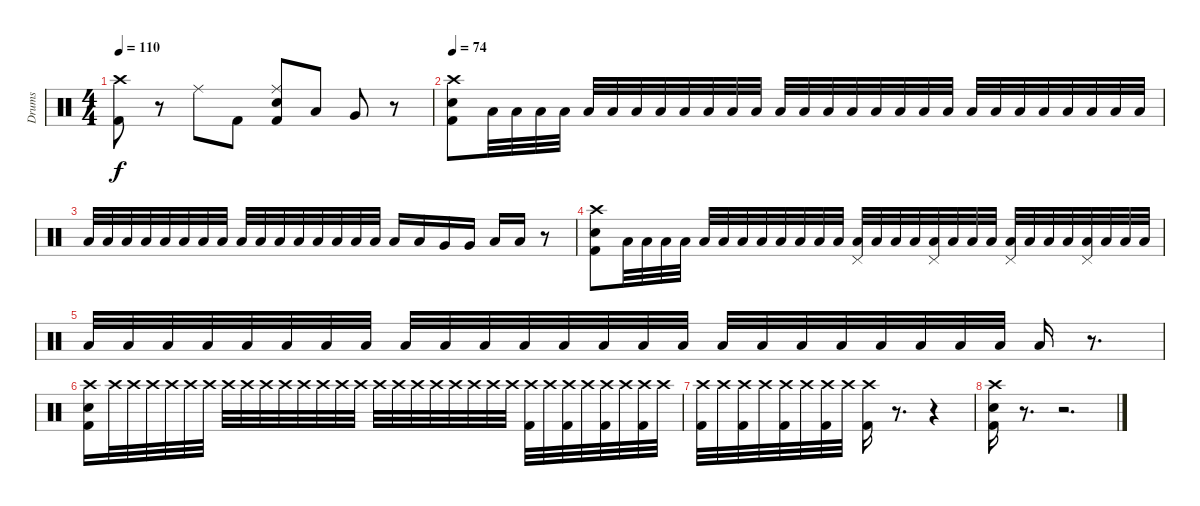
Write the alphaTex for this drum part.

\track ("Drums" "Drums") {instrument percussion}
\staff {score}
\articulation defaults
\ts (4 4)
\tempo 110
\clef neutral
\ks c
("Crash high (hit)" "Kick (hit) 2").8{dy f} r.8 "Ride (middle)".8 "Kick (hit) 2".8 ("Ride (middle)" "Snare (hit) 2" "Kick (hit) 2").8 "Low Tom (hit)".8 "Very Low Tom (hit)".8 r.8 |
\tempo 74
("Crash high (hit)" "Snare (hit) 2" "Kick (hit) 2").8 "Low Tom (hit)".32 "Low Tom (hit)".32 "Low Tom (hit)".32 "Low Tom (hit)".32 "Low Tom (hit)".32 "Low Tom (hit)".32 "Low Tom (hit)".32 "Low Tom (hit)".32 "Low Tom (hit)".32 "Low Tom (hit)".32 "Low Tom (hit)".32 "Low Tom (hit)".32 "Low Tom (hit)".32 "Low Tom (hit)".32 "Low Tom (hit)".32 "Low Tom (hit)".32 "Low Tom (hit)".32 "Low Tom (hit)".32 "Low Tom (hit)".32 "Low Tom (hit)".32 "Low Tom (hit)".32 "Low Tom (hit)".32 "Low Tom (hit)".32 "Low Tom (hit)".32 "Low Tom (hit)".32 "Low Tom (hit)".32 "Low Tom (hit)".32 "Low Tom (hit)".32 |
"Low Tom (hit)".32 "Low Tom (hit)".32 "Low Tom (hit)".32 "Low Tom (hit)".32 "Low Tom (hit)".32 "Low Tom (hit)".32 "Low Tom (hit)".32 "Low Tom (hit)".32 "Low Tom (hit)".32 "Low Tom (hit)".32 "Low Tom (hit)".32 "Low Tom (hit)".32 "Low Tom (hit)".32 "Low Tom (hit)".32 "Low Tom (hit)".32 "Low Tom (hit)".32 "Low Tom (hit)".16 "Low Tom (hit)".16 "Very Low Tom (hit)".16 "Very Low Tom (hit)".16 "Low Floor Tom (hit)".16 "Low Floor Tom (hit)".16 r.8 |
("Crash high (hit)" "Snare (hit) 2" "Kick (hit) 2").8 "Low Tom (hit)".32 "Low Tom (hit)".32 "Low Tom (hit)".32 "Low Tom (hit)".32 "Low Tom (hit)".32 "Low Tom (hit)".32 "Low Tom (hit)".32 "Low Tom (hit)".32 "Low Tom (hit)".32 "Low Tom (hit)".32 "Low Tom (hit)".32 "Low Tom (hit)".32 ("Pedal Hi-Hat (hit)" "Low Tom (hit)").32 "Low Tom (hit)".32 "Low Tom (hit)".32 "Low Tom (hit)".32 ("Pedal Hi-Hat (hit)" "Low Tom (hit)").32 "Low Tom (hit)".32 "Low Tom (hit)".32 "Low Tom (hit)".32 ("Pedal Hi-Hat (hit)" "Low Tom (hit)").32 "Low Tom (hit)".32 "Low Tom (hit)".32 "Low Tom (hit)".32 ("Pedal Hi-Hat (hit)" "Low Tom (hit)").32 "Low Tom (hit)".32 "Low Tom (hit)".32 "Low Tom (hit)".32 |
"Low Tom (hit)".32 "Low Tom (hit)".32 "Low Tom (hit)".32 "Low Tom (hit)".32 "Low Tom (hit)".32 "Low Tom (hit)".32 "Low Tom (hit)".32 "Low Tom (hit)".32 "Low Tom (hit)".32 "Low Tom (hit)".32 "Low Tom (hit)".32 "Low Tom (hit)".32 "Low Tom (hit)".32 "Low Tom (hit)".32 "Low Tom (hit)".32 "Low Tom (hit)".32 "Low Tom (hit)".32 "Low Tom (hit)".32 "Low Tom (hit)".32 "Low Tom (hit)".32 "Low Tom (hit)".32 "Low Tom (hit)".32 "Low Tom (hit)".32 "Low Tom (hit)".32 "Low Tom (hit)".16 r.8{d} |
("Crash high (hit)" "Snare (hit) 2" "Kick (hit) 2").16 "Crash high (hit)".32 "Crash high (hit)".32 "Crash high (hit)".32 "Crash high (hit)".32 "Crash high (hit)".32 "Crash high (hit)".32 "Crash high (hit)".32 "Crash high (hit)".32 "Crash high (hit)".32 "Crash high (hit)".32 "Crash high (hit)".32 "Crash high (hit)".32 "Crash high (hit)".32 "Crash high (hit)".32 "Crash high (hit)".32 "Crash high (hit)".32 "Crash high (hit)".32 "Crash high (hit)".32 "Crash high (hit)".32 "Crash high (hit)".32 "Crash high (hit)".32 "Crash high (hit)".32 ("Crash high (hit)" "Kick (hit) 2").32 "Crash high (hit)".32 ("Crash high (hit)" "Kick (hit) 2").32 "Crash high (hit)".32 ("Crash high (hit)" "Kick (hit) 2").32 "Crash high (hit)".32 ("Crash high (hit)" "Kick (hit) 2").32 "Crash high (hit)".32 |
("Crash high (hit)" "Kick (hit) 2").32 "Crash high (hit)".32 ("Crash high (hit)" "Kick (hit) 2").32 "Crash high (hit)".32 ("Crash high (hit)" "Kick (hit) 2").32 "Crash high (hit)".32 ("Crash high (hit)" "Kick (hit) 2").32 "Crash high (hit)".32 ("Crash high (hit)" "Kick (hit) 2").16 r.8{d} r.4 |
("Crash high (hit)" "Snare (hit) 2" "Kick (hit) 2").16 r.8{d} r.2{d}
